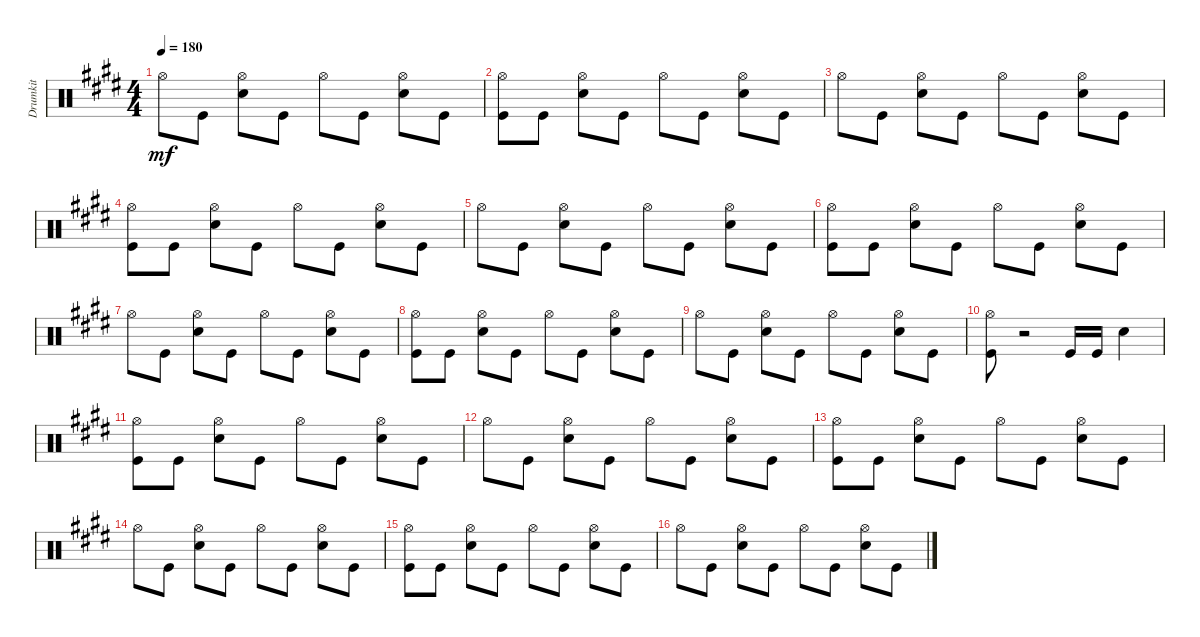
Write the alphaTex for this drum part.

\track ("Drumkit" "Drumkit") {instrument percussion}
\staff {score}
\articulation defaults
\ts (4 4)
\tempo 180
\clef neutral
\ks e "Hi-Hat (open)".8{dy mf} "Kick (hit)".8
("Snare (hit) 2" "Hi-Hat (open)").8 "Kick (hit)".8 "Hi-Hat (open)".8 "Kick (hit)".8 ("Snare (hit) 2" "Hi-Hat (open)").8 "Kick (hit)".8 |
("Kick (hit)" "Hi-Hat (open)").8 "Kick (hit)".8 ("Snare (hit) 2" "Hi-Hat (open)").8 "Kick (hit)".8 "Hi-Hat (open)".8 "Kick (hit)".8 ("Snare (hit) 2" "Hi-Hat (open)").8 "Kick (hit)".8 |
"Hi-Hat (open)".8 "Kick (hit)".8 ("Snare (hit) 2" "Hi-Hat (open)").8 "Kick (hit)".8 "Hi-Hat (open)".8 "Kick (hit)".8 ("Snare (hit) 2" "Hi-Hat (open)").8 "Kick (hit)".8 |
("Kick (hit)" "Hi-Hat (open)").8 "Kick (hit)".8 ("Snare (hit) 2" "Hi-Hat (open)").8 "Kick (hit)".8 "Hi-Hat (open)".8 "Kick (hit)".8 ("Snare (hit) 2" "Hi-Hat (open)").8 "Kick (hit)".8 |
"Hi-Hat (open)".8 "Kick (hit)".8 ("Snare (hit) 2" "Hi-Hat (open)").8 "Kick (hit)".8 "Hi-Hat (open)".8 "Kick (hit)".8 ("Snare (hit) 2" "Hi-Hat (open)").8 "Kick (hit)".8 |
("Kick (hit)" "Hi-Hat (open)").8 "Kick (hit)".8 ("Snare (hit) 2" "Hi-Hat (open)").8 "Kick (hit)".8 "Hi-Hat (open)".8 "Kick (hit)".8 ("Snare (hit) 2" "Hi-Hat (open)").8 "Kick (hit)".8 |
"Hi-Hat (open)".8 "Kick (hit)".8 ("Snare (hit) 2" "Hi-Hat (open)").8 "Kick (hit)".8 "Hi-Hat (open)".8 "Kick (hit)".8 ("Snare (hit) 2" "Hi-Hat (open)").8 "Kick (hit)".8 |
("Kick (hit)" "Hi-Hat (open)").8 "Kick (hit)".8 ("Snare (hit) 2" "Hi-Hat (open)").8 "Kick (hit)".8 "Hi-Hat (open)".8 "Kick (hit)".8 ("Snare (hit) 2" "Hi-Hat (open)").8 "Kick (hit)".8 |
"Hi-Hat (open)".8 "Kick (hit)".8 ("Snare (hit) 2" "Hi-Hat (open)").8 "Kick (hit)".8 "Hi-Hat (open)".8 "Kick (hit)".8 ("Snare (hit) 2" "Hi-Hat (open)").8 "Kick (hit)".8 |
("Kick (hit)" "Hi-Hat (open)").8 r.2 "Kick (hit)".16 "Kick (hit)".16 "Snare (hit) 2".4 |
("Kick (hit)" "Hi-Hat (open)").8 "Kick (hit)".8 ("Snare (hit) 2" "Hi-Hat (open)").8 "Kick (hit)".8 "Hi-Hat (open)".8 "Kick (hit)".8 ("Snare (hit) 2" "Hi-Hat (open)").8 "Kick (hit)".8 |
"Hi-Hat (open)".8 "Kick (hit)".8 ("Snare (hit) 2" "Hi-Hat (open)").8 "Kick (hit)".8 "Hi-Hat (open)".8 "Kick (hit)".8 ("Snare (hit) 2" "Hi-Hat (open)").8 "Kick (hit)".8 |
("Kick (hit)" "Hi-Hat (open)").8 "Kick (hit)".8 ("Snare (hit) 2" "Hi-Hat (open)").8 "Kick (hit)".8 "Hi-Hat (open)".8 "Kick (hit)".8 ("Snare (hit) 2" "Hi-Hat (open)").8 "Kick (hit)".8 |
"Hi-Hat (open)".8 "Kick (hit)".8 ("Snare (hit) 2" "Hi-Hat (open)").8 "Kick (hit)".8 "Hi-Hat (open)".8 "Kick (hit)".8 ("Snare (hit) 2" "Hi-Hat (open)").8 "Kick (hit)".8 |
("Kick (hit)" "Hi-Hat (open)").8 "Kick (hit)".8 ("Snare (hit) 2" "Hi-Hat (open)").8 "Kick (hit)".8 "Hi-Hat (open)".8 "Kick (hit)".8 ("Snare (hit) 2" "Hi-Hat (open)").8 "Kick (hit)".8 |
"Hi-Hat (open)".8 "Kick (hit)".8 ("Snare (hit) 2" "Hi-Hat (open)").8 "Kick (hit)".8 "Hi-Hat (open)".8 "Kick (hit)".8 ("Snare (hit) 2" "Hi-Hat (open)").8 "Kick (hit)".8
